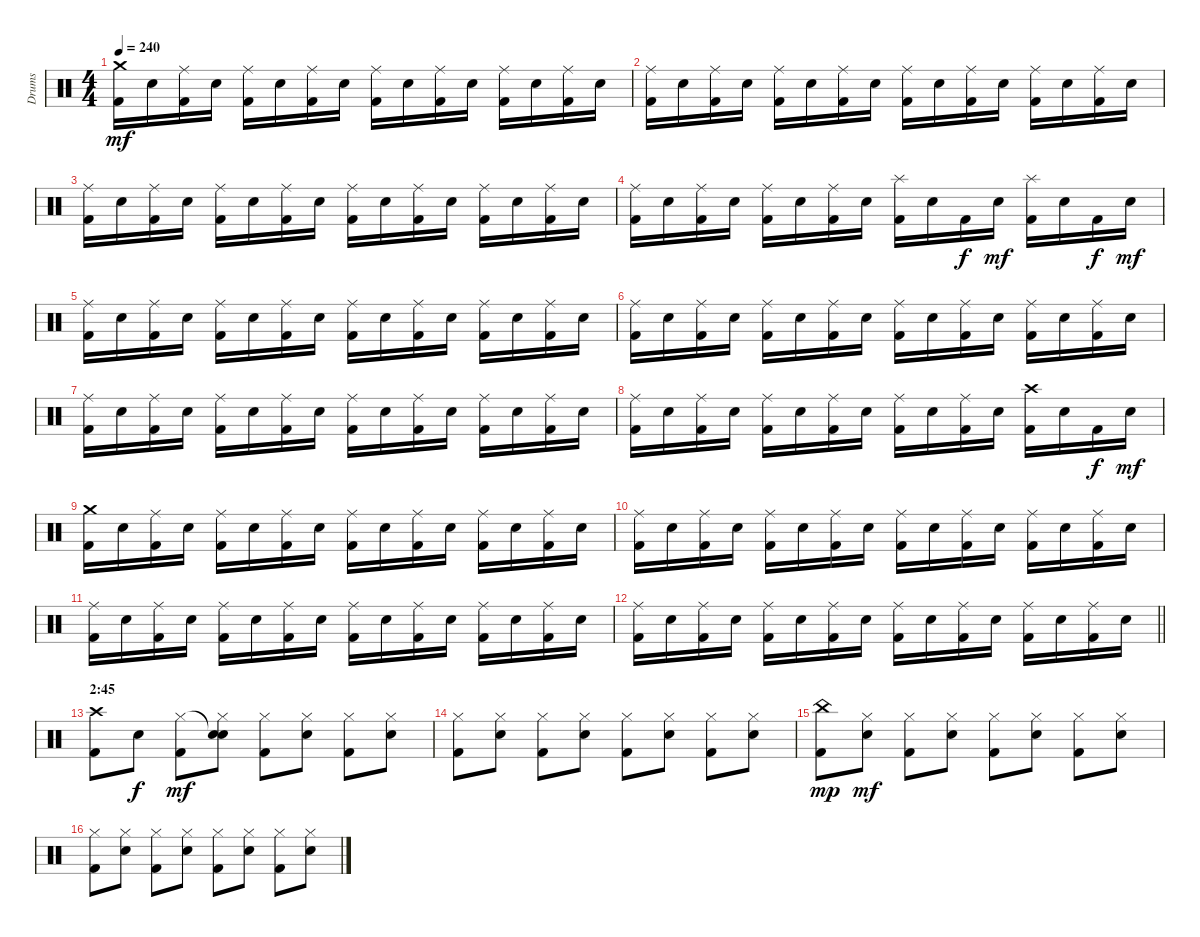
\track ("Drums" "Drums") {instrument percussion}
\staff {score}
\articulation defaults
\ts (4 4)
\tempo 240
\clef neutral
\ks c
("Crash medium (hit)" "Kick (hit) 2").16{dy mf} "Electric Snare (hit)".16 ("Ride (middle)" "Kick (hit) 2").16 "Electric Snare (hit)".16 ("Ride (middle)" "Kick (hit) 2").16 "Electric Snare (hit)".16 ("Ride (middle)" "Kick (hit) 2").16 "Electric Snare (hit)".16 ("Ride (middle)" "Kick (hit) 2").16 "Electric Snare (hit)".16 ("Ride (middle)" "Kick (hit) 2").16 "Electric Snare (hit)".16 ("Ride (middle)" "Kick (hit) 2").16 "Electric Snare (hit)".16 ("Ride (middle)" "Kick (hit) 2").16 "Electric Snare (hit)".16 |
("Ride (middle)" "Kick (hit) 2").16 "Electric Snare (hit)".16 ("Ride (middle)" "Kick (hit) 2").16 "Electric Snare (hit)".16 ("Ride (middle)" "Kick (hit) 2").16 "Electric Snare (hit)".16 ("Ride (middle)" "Kick (hit) 2").16 "Electric Snare (hit)".16 ("Ride (middle)" "Kick (hit) 2").16 "Electric Snare (hit)".16 ("Ride (middle)" "Kick (hit) 2").16 "Electric Snare (hit)".16 ("Ride (middle)" "Kick (hit) 2").16 "Electric Snare (hit)".16 ("Ride (middle)" "Kick (hit) 2").16 "Electric Snare (hit)".16 |
("Ride (middle)" "Kick (hit) 2").16 "Electric Snare (hit)".16 ("Ride (middle)" "Kick (hit) 2").16 "Electric Snare (hit)".16 ("Ride (middle)" "Kick (hit) 2").16 "Electric Snare (hit)".16 ("Ride (middle)" "Kick (hit) 2").16 "Electric Snare (hit)".16 ("Ride (middle)" "Kick (hit) 2").16 "Electric Snare (hit)".16 ("Ride (middle)" "Kick (hit) 2").16 "Electric Snare (hit)".16 ("Ride (middle)" "Kick (hit) 2").16 "Electric Snare (hit)".16 ("Ride (middle)" "Kick (hit) 2").16 "Electric Snare (hit)".16 |
("Ride (middle)" "Kick (hit) 2").16 "Electric Snare (hit)".16 ("Ride (middle)" "Kick (hit) 2").16 "Electric Snare (hit)".16 ("Ride (middle)" "Kick (hit) 2").16 "Electric Snare (hit)".16 ("Ride (middle)" "Kick (hit) 2").16 "Electric Snare (hit)".16 ("Splash (hit)" "Kick (hit) 2").16 "Electric Snare (hit)".16 "Kick (hit) 2".16{dy f} "Electric Snare (hit)".16{dy mf} ("Splash (hit)" "Kick (hit) 2").16 "Electric Snare (hit)".16 "Kick (hit) 2".16{dy f} "Electric Snare (hit)".16{dy mf} |
("Ride (middle)" "Kick (hit) 2").16 "Electric Snare (hit)".16 ("Ride (middle)" "Kick (hit) 2").16 "Electric Snare (hit)".16 ("Ride (middle)" "Kick (hit) 2").16 "Electric Snare (hit)".16 ("Ride (middle)" "Kick (hit) 2").16 "Electric Snare (hit)".16 ("Ride (middle)" "Kick (hit) 2").16 "Electric Snare (hit)".16 ("Ride (middle)" "Kick (hit) 2").16 "Electric Snare (hit)".16 ("Ride (middle)" "Kick (hit) 2").16 "Electric Snare (hit)".16 ("Ride (middle)" "Kick (hit) 2").16 "Electric Snare (hit)".16 |
("Ride (middle)" "Kick (hit) 2").16 "Electric Snare (hit)".16 ("Ride (middle)" "Kick (hit) 2").16 "Electric Snare (hit)".16 ("Ride (middle)" "Kick (hit) 2").16 "Electric Snare (hit)".16 ("Ride (middle)" "Kick (hit) 2").16 "Electric Snare (hit)".16 ("Ride (middle)" "Kick (hit) 2").16 "Electric Snare (hit)".16 ("Ride (middle)" "Kick (hit) 2").16 "Electric Snare (hit)".16 ("Ride (middle)" "Kick (hit) 2").16 "Electric Snare (hit)".16 ("Ride (middle)" "Kick (hit) 2").16 "Electric Snare (hit)".16 |
("Ride (middle)" "Kick (hit) 2").16 "Electric Snare (hit)".16 ("Ride (middle)" "Kick (hit) 2").16 "Electric Snare (hit)".16 ("Ride (middle)" "Kick (hit) 2").16 "Electric Snare (hit)".16 ("Ride (middle)" "Kick (hit) 2").16 "Electric Snare (hit)".16 ("Ride (middle)" "Kick (hit) 2").16 "Electric Snare (hit)".16 ("Ride (middle)" "Kick (hit) 2").16 "Electric Snare (hit)".16 ("Ride (middle)" "Kick (hit) 2").16 "Electric Snare (hit)".16 ("Ride (middle)" "Kick (hit) 2").16 "Electric Snare (hit)".16 |
("Ride (middle)" "Kick (hit) 2").16 "Electric Snare (hit)".16 ("Ride (middle)" "Kick (hit) 2").16 "Electric Snare (hit)".16 ("Ride (middle)" "Kick (hit) 2").16 "Electric Snare (hit)".16 ("Ride (middle)" "Kick (hit) 2").16 "Electric Snare (hit)".16 ("Ride (middle)" "Kick (hit) 2").16 "Electric Snare (hit)".16 ("Ride (middle)" "Kick (hit) 2").16 "Electric Snare (hit)".16 ("Crash high (hit)" "Kick (hit) 2").16 "Electric Snare (hit)".16 "Kick (hit) 2".16{dy f} "Electric Snare (hit)".16{dy mf} |
("Crash medium (hit)" "Kick (hit) 2").16 "Electric Snare (hit)".16 ("Ride (middle)" "Kick (hit) 2").16 "Electric Snare (hit)".16 ("Ride (middle)" "Kick (hit) 2").16 "Electric Snare (hit)".16 ("Ride (middle)" "Kick (hit) 2").16 "Electric Snare (hit)".16 ("Ride (middle)" "Kick (hit) 2").16 "Electric Snare (hit)".16 ("Ride (middle)" "Kick (hit) 2").16 "Electric Snare (hit)".16 ("Ride (middle)" "Kick (hit) 2").16 "Electric Snare (hit)".16 ("Ride (middle)" "Kick (hit) 2").16 "Electric Snare (hit)".16 |
("Ride (middle)" "Kick (hit) 2").16 "Electric Snare (hit)".16 ("Ride (middle)" "Kick (hit) 2").16 "Electric Snare (hit)".16 ("Ride (middle)" "Kick (hit) 2").16 "Electric Snare (hit)".16 ("Ride (middle)" "Kick (hit) 2").16 "Electric Snare (hit)".16 ("Ride (middle)" "Kick (hit) 2").16 "Electric Snare (hit)".16 ("Ride (middle)" "Kick (hit) 2").16 "Electric Snare (hit)".16 ("Ride (middle)" "Kick (hit) 2").16 "Electric Snare (hit)".16 ("Ride (middle)" "Kick (hit) 2").16 "Electric Snare (hit)".16 |
("Ride (middle)" "Kick (hit) 2").16 "Electric Snare (hit)".16 ("Ride (middle)" "Kick (hit) 2").16 "Electric Snare (hit)".16 ("Ride (middle)" "Kick (hit) 2").16 "Electric Snare (hit)".16 ("Ride (middle)" "Kick (hit) 2").16 "Electric Snare (hit)".16 ("Ride (middle)" "Kick (hit) 2").16 "Electric Snare (hit)".16 ("Ride (middle)" "Kick (hit) 2").16 "Electric Snare (hit)".16 ("Ride (middle)" "Kick (hit) 2").16 "Electric Snare (hit)".16 ("Ride (middle)" "Kick (hit) 2").16 "Electric Snare (hit)".16 |
\barLineRight lightlight
("Ride (middle)" "Kick (hit) 2").16 "Electric Snare (hit)".16 ("Ride (middle)" "Kick (hit) 2").16 "Electric Snare (hit)".16 ("Ride (middle)" "Kick (hit) 2").16 "Electric Snare (hit)".16 ("Ride (middle)" "Kick (hit) 2").16 "Electric Snare (hit)".16 ("Ride (middle)" "Kick (hit) 2").16 "Electric Snare (hit)".16 ("Ride (middle)" "Kick (hit) 2").16 "Electric Snare (hit)".16 ("Ride (middle)" "Kick (hit) 2").16 "Electric Snare (hit)".16 ("Ride (middle)" "Kick (hit) 2").16 "Electric Snare (hit)".16 |
\section ("" "2:45")
("Crash high (hit)" "Kick (hit) 2").8 "Electric Snare (hit)".8{dy f} ("Hi-Hat (closed)" "Kick (hit) 2").8{dy mf} ("Snare (hit)"{t} "Hi-Hat (closed)" "Electric Snare (hit)").8 ("Hi-Hat (closed)" "Kick (hit) 2").8 ("Hi-Hat (closed)" "Electric Snare (hit)").8 ("Hi-Hat (closed)" "Kick (hit) 2").8 ("Hi-Hat (closed)" "Electric Snare (hit)").8 |
("Hi-Hat (closed)" "Kick (hit) 2").8 ("Hi-Hat (closed)" "Electric Snare (hit)").8 ("Hi-Hat (closed)" "Kick (hit) 2").8 ("Hi-Hat (closed)" "Electric Snare (hit)").8 ("Hi-Hat (closed)" "Kick (hit) 2").8 ("Hi-Hat (closed)" "Electric Snare (hit)").8 ("Hi-Hat (closed)" "Kick (hit) 2").8 ("Hi-Hat (closed)" "Electric Snare (hit)").8 |
("China (hit)" "Kick (hit) 2").8{dy mp} ("Hi-Hat (closed)" "Electric Snare (hit)").8{dy mf} ("Hi-Hat (closed)" "Kick (hit) 2").8 ("Hi-Hat (closed)" "Electric Snare (hit)").8 ("Hi-Hat (closed)" "Kick (hit) 2").8 ("Hi-Hat (closed)" "Electric Snare (hit)").8 ("Hi-Hat (closed)" "Kick (hit) 2").8 ("Hi-Hat (closed)" "Electric Snare (hit)").8 |
("Hi-Hat (closed)" "Kick (hit) 2").8 ("Hi-Hat (closed)" "Electric Snare (hit)").8 ("Hi-Hat (closed)" "Kick (hit) 2").8 ("Hi-Hat (closed)" "Electric Snare (hit)").8 ("Hi-Hat (closed)" "Kick (hit) 2").8 ("Hi-Hat (closed)" "Electric Snare (hit)").8 ("Hi-Hat (closed)" "Kick (hit) 2").8 ("Hi-Hat (closed)" "Electric Snare (hit)").8
